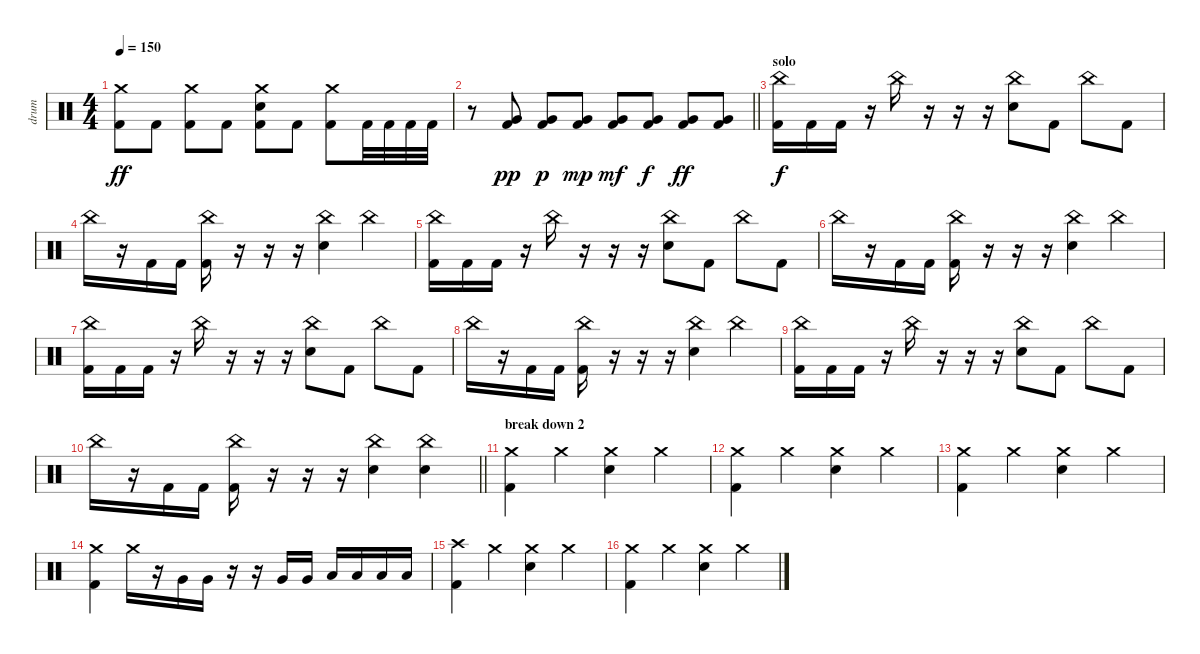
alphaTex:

\track ("drum" "drum") {instrument percussion}
\staff {score}
\articulation defaults
\ts (4 4)
\tempo 150
\clef neutral
\ks c
("Crash medium (hit)" "Kick (hit) 2").8{dy ff} "Kick (hit) 2".8 ("Crash medium (hit)" "Kick (hit) 2").8 "Kick (hit) 2".8 ("Crash medium (hit)" "Electric Snare (hit)" "Kick (hit) 2").8 "Kick (hit) 2".8 ("Crash medium (hit)" "Kick (hit) 2").8 "Kick (hit) 2".32 "Kick (hit) 2".32 "Kick (hit) 2".32 "Kick (hit) 2".32 |
\barLineRight lightlight
r.8 ("Very Low Tom (hit)" "Kick (hit) 2").8{dy pp} ("Very Low Tom (hit)" "Kick (hit) 2").8{dy p} ("Very Low Tom (hit)" "Kick (hit) 2").8{dy mp} ("Very Low Tom (hit)" "Kick (hit) 2").8{dy mf} ("Very Low Tom (hit)" "Kick (hit) 2").8{dy f} ("Very Low Tom (hit)" "Kick (hit) 2").8{dy ff} ("Very Low Tom (hit)" "Kick (hit) 2").8 |
\section ("" "solo")
("China (hit)" "Kick (hit) 2").16{dy f} "Kick (hit) 2".16 "Kick (hit) 2".16 r.16 "China (hit)".16 r.16 r.16 r.16 ("China (hit)" "Electric Snare (hit)").8 "Kick (hit) 2".8 "China (hit)".8 "Kick (hit) 2".8 |
"China (hit)".16 r.16 "Kick (hit) 2".16 "Kick (hit) 2".16 ("China (hit)" "Kick (hit) 2").16 r.16 r.16 r.16 ("China (hit)" "Electric Snare (hit)").4 "China (hit)".4 |
("China (hit)" "Kick (hit) 2").16 "Kick (hit) 2".16 "Kick (hit) 2".16 r.16 "China (hit)".16 r.16 r.16 r.16 ("China (hit)" "Electric Snare (hit)").8 "Kick (hit) 2".8 "China (hit)".8 "Kick (hit) 2".8 |
"China (hit)".16 r.16 "Kick (hit) 2".16 "Kick (hit) 2".16 ("China (hit)" "Kick (hit) 2").16 r.16 r.16 r.16 ("China (hit)" "Electric Snare (hit)").4 "China (hit)".4 |
("China (hit)" "Kick (hit) 2").16 "Kick (hit) 2".16 "Kick (hit) 2".16 r.16 "China (hit)".16 r.16 r.16 r.16 ("China (hit)" "Electric Snare (hit)").8 "Kick (hit) 2".8 "China (hit)".8 "Kick (hit) 2".8 |
"China (hit)".16 r.16 "Kick (hit) 2".16 "Kick (hit) 2".16 ("China (hit)" "Kick (hit) 2").16 r.16 r.16 r.16 ("China (hit)" "Electric Snare (hit)").4 "China (hit)".4 |
("China (hit)" "Kick (hit) 2").16 "Kick (hit) 2".16 "Kick (hit) 2".16 r.16 "China (hit)".16 r.16 r.16 r.16 ("China (hit)" "Electric Snare (hit)").8 "Kick (hit) 2".8 "China (hit)".8 "Kick (hit) 2".8 |
\barLineRight lightlight "China (hit)".16
r.16 "Kick (hit) 2".16 "Kick (hit) 2".16 ("China (hit)" "Kick (hit) 2").16 r.16 r.16 r.16 ("China (hit)" "Electric Snare (hit)").4 ("China (hit)" "Electric Snare (hit)").4 |
\section ("" "break down 2")
("Crash medium (hit)" "Kick (hit) 2").4 "Crash medium (hit)".4 ("Crash medium (hit)" "Electric Snare (hit)").4 "Crash medium (hit)".4 |
("Crash medium (hit)" "Kick (hit) 2").4 "Crash medium (hit)".4 ("Crash medium (hit)" "Electric Snare (hit)").4 "Crash medium (hit)".4 |
("Crash medium (hit)" "Kick (hit) 2").4 "Crash medium (hit)".4 ("Crash medium (hit)" "Electric Snare (hit)").4 "Crash medium (hit)".4 |
("Crash medium (hit)" "Kick (hit) 2").4 "Crash medium (hit)".16 r.16 "Very Low Tom (hit)".16 "Very Low Tom (hit)".16 r.16 r.16 "Very Low Tom (hit)".16 "Very Low Tom (hit)".16 "Low Floor Tom (hit)".16 "Low Floor Tom (hit)".16 "Low Floor Tom (hit)".16 "Low Floor Tom (hit)".16 |
("Crash high (hit)" "Kick (hit) 2").4 "Crash medium (hit)".4 ("Crash medium (hit)" "Electric Snare (hit)").4 "Crash medium (hit)".4 |
("Crash medium (hit)" "Kick (hit) 2").4 "Crash medium (hit)".4 ("Crash medium (hit)" "Electric Snare (hit)").4 "Crash medium (hit)".4
